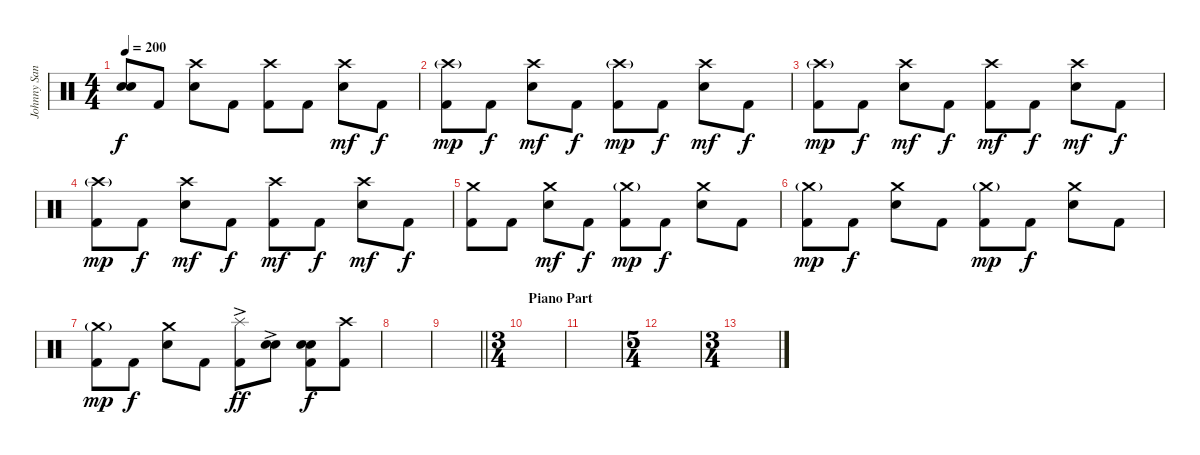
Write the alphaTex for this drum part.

\track ("Johnny Sandin" "Johnny San") {instrument percussion}
\staff {score}
\articulation defaults
\ts (4 4)
\tempo 200
\clef neutral
\ks c
("Snare (hit)"{t} "Snare (hit)"{t}).8{dy f} "Kick (hit) 2".8 ("Crash high (hit)" "Snare (hit) 2").8 "Kick (hit) 2".8 ("Crash high (hit)" "Kick (hit) 2").8 "Kick (hit) 2".8 ("Crash high (hit)" "Snare (hit) 2").8{dy mf} "Kick (hit) 2".8{dy f} |
("Crash high (hit)"{g} "Kick (hit) 2").8{dy mp} "Kick (hit) 2".8{dy f} ("Crash high (hit)" "Snare (hit) 2").8{dy mf} "Kick (hit) 2".8{dy f} ("Crash high (hit)"{g} "Kick (hit) 2").8{dy mp} "Kick (hit) 2".8{dy f} ("Crash high (hit)" "Snare (hit) 2").8{dy mf} "Kick (hit) 2".8{dy f} |
("Crash high (hit)"{g} "Kick (hit) 2").8{dy mp} "Kick (hit) 2".8{dy f} ("Crash high (hit)" "Snare (hit) 2").8{dy mf} "Kick (hit) 2".8{dy f} ("Crash high (hit)" "Kick (hit) 2").8{dy mf} "Kick (hit) 2".8{dy f} ("Crash high (hit)" "Snare (hit) 2").8{dy mf} "Kick (hit) 2".8{dy f} |
("Crash high (hit)"{g} "Kick (hit) 2").8{dy mp} "Kick (hit) 2".8{dy f} ("Crash high (hit)" "Snare (hit) 2").8{dy mf} "Kick (hit) 2".8{dy f} ("Crash high (hit)" "Kick (hit) 2").8{dy mf} "Kick (hit) 2".8{dy f} ("Crash high (hit)" "Snare (hit) 2").8{dy mf} "Kick (hit) 2".8{dy f} |
("Crash medium (hit)" "Kick (hit) 2").8 "Kick (hit) 2".8 ("Crash medium (hit)" "Snare (hit) 2").8{dy mf} "Kick (hit) 2".8{dy f} ("Crash medium (hit)"{g} "Kick (hit) 2").8{dy mp} "Kick (hit) 2".8{dy f} ("Crash medium (hit)" "Snare (hit) 2").8 "Kick (hit) 2".8 |
("Crash medium (hit)"{g} "Kick (hit) 2").8{dy mp} "Kick (hit) 2".8{dy f} ("Crash medium (hit)" "Snare (hit) 2").8 "Kick (hit) 2".8 ("Crash medium (hit)"{g} "Kick (hit) 2").8{dy mp} "Kick (hit) 2".8{dy f} ("Crash medium (hit)" "Snare (hit) 2").8 "Kick (hit) 2".8 |
("Crash medium (hit)"{g} "Kick (hit) 2").8{dy mp} "Kick (hit) 2".8{dy f} ("Crash medium (hit)" "Snare (hit) 2").8 "Kick (hit) 2".8 ("Splash (hit)" "Kick (hit) 2"{ac}).8{dy ff} ("Snare (hit) 2"{ac} "Snare (hit) 2"{ac}).8 ("Snare (hit) 2" "Snare (hit) 2" "Kick (hit) 2").8{dy f} ("Crash high (hit)" "Kick (hit) 2").8 |
|
\barLineRight lightlight
|
\ts (3 4)
\section ("" "Piano Part")
|
|
\ts (5 4)
|
\ts (3 4)
